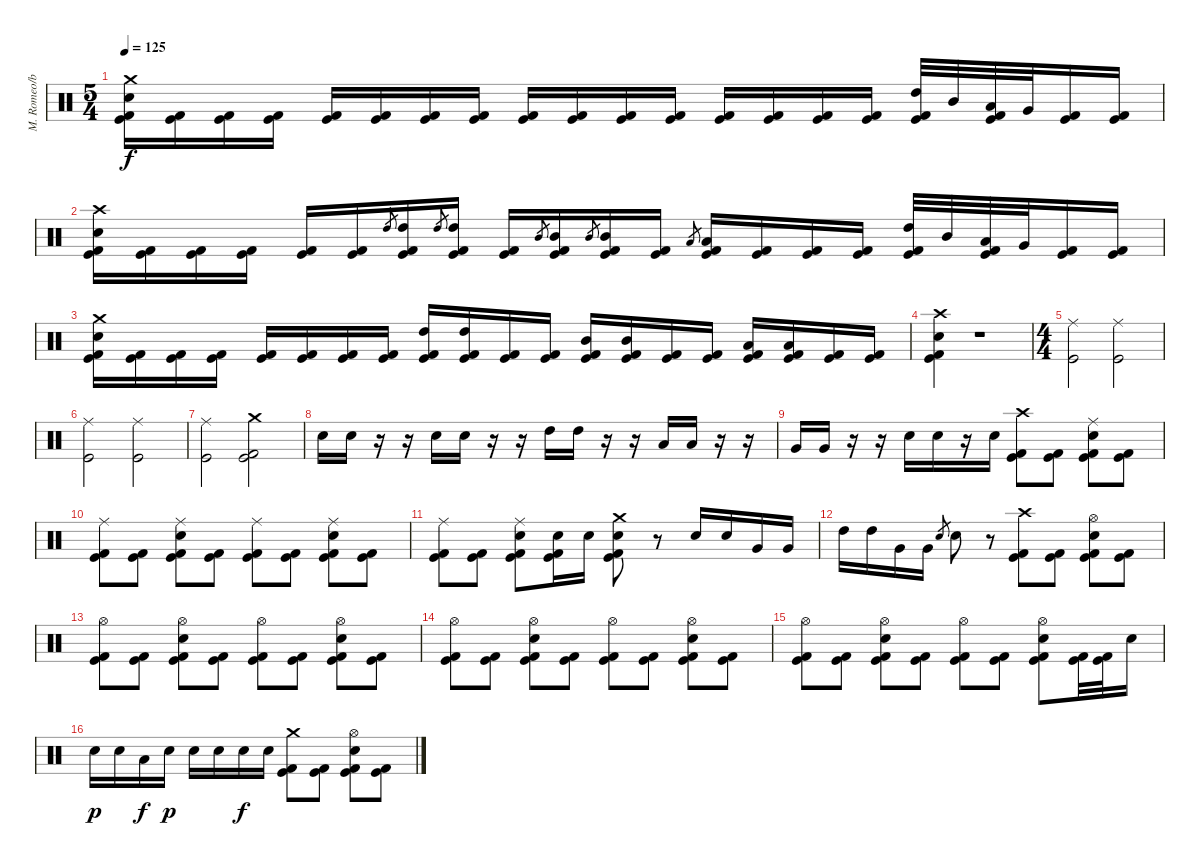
\track ("M. Romeo/bateria" "M. Romeo/b") {instrument percussion}
\staff {score}
\articulation defaults
\ts (5 4)
\tempo 125
\clef neutral
\ks c
("Crash medium (hit)" "Electric Snare (hit)" "Kick (hit)" "Kick (hit) 2").16{dy f} ("Kick (hit)" "Kick (hit) 2").16 ("Kick (hit)" "Kick (hit) 2").16 ("Kick (hit)" "Kick (hit) 2").16 ("Kick (hit)" "Kick (hit) 2").16 ("Kick (hit)" "Kick (hit) 2").16 ("Kick (hit)" "Kick (hit) 2").16 ("Kick (hit)" "Kick (hit) 2").16 ("Kick (hit)" "Kick (hit) 2").16 ("Kick (hit)" "Kick (hit) 2").16 ("Kick (hit)" "Kick (hit) 2").16 ("Kick (hit)" "Kick (hit) 2").16 ("Kick (hit)" "Kick (hit) 2").16 ("Kick (hit)" "Kick (hit) 2").16 ("Kick (hit)" "Kick (hit) 2").16 ("Kick (hit)" "Kick (hit) 2").16 ("High Tom (hit)" "Kick (hit)" "Kick (hit) 2").32 "Mid Tom (hit)".32 ("Low Tom (hit)" "Kick (hit)" "Kick (hit) 2").32 "Very Low Tom (hit)".32 ("Kick (hit)" "Kick (hit) 2").16 ("Kick (hit)" "Kick (hit) 2").16 |
("Crash high (hit)" "Electric Snare (hit)" "Kick (hit)" "Kick (hit) 2").16 ("Kick (hit)" "Kick (hit) 2").16 ("Kick (hit)" "Kick (hit) 2").16 ("Kick (hit)" "Kick (hit) 2").16 ("Kick (hit)" "Kick (hit) 2").16 ("Kick (hit)" "Kick (hit) 2").16 "High Tom (hit)".8{gr} ("High Tom (hit)" "Kick (hit)" "Kick (hit) 2").16 "High Tom (hit)".8{gr} ("High Tom (hit)" "Kick (hit)" "Kick (hit) 2").16 ("Kick (hit)" "Kick (hit) 2").16 "Mid Tom (hit)".8{gr} ("Mid Tom (hit)" "Kick (hit)" "Kick (hit) 2").16 "Mid Tom (hit)".8{gr} ("Mid Tom (hit)" "Kick (hit)" "Kick (hit) 2").16 ("Kick (hit)" "Kick (hit) 2").16 "Low Tom (hit)".8{gr} ("Low Tom (hit)" "Kick (hit)" "Kick (hit) 2").16 ("Kick (hit)" "Kick (hit) 2").16 ("Kick (hit)" "Kick (hit) 2").16 ("Kick (hit)" "Kick (hit) 2").16 ("High Tom (hit)" "Kick (hit)" "Kick (hit) 2").32 "Mid Tom (hit)".32 ("Low Tom (hit)" "Kick (hit)" "Kick (hit) 2").32 "Very Low Tom (hit)".32 ("Kick (hit)" "Kick (hit) 2").16 ("Kick (hit)" "Kick (hit) 2").16 |
("Crash medium (hit)" "Electric Snare (hit)" "Kick (hit)" "Kick (hit) 2").16 ("Kick (hit)" "Kick (hit) 2").16 ("Kick (hit)" "Kick (hit) 2").16 ("Kick (hit)" "Kick (hit) 2").16 ("Kick (hit)" "Kick (hit) 2").16 ("Kick (hit)" "Kick (hit) 2").16 ("Kick (hit)" "Kick (hit) 2").16 ("Kick (hit)" "Kick (hit) 2").16 ("High Tom (hit)" "Kick (hit)" "Kick (hit) 2").16 ("High Tom (hit)" "Kick (hit)" "Kick (hit) 2").16 ("Kick (hit)" "Kick (hit) 2").16 ("Kick (hit)" "Kick (hit) 2").16 ("Mid Tom (hit)" "Kick (hit)" "Kick (hit) 2").16 ("Mid Tom (hit)" "Kick (hit)" "Kick (hit) 2").16 ("Kick (hit)" "Kick (hit) 2").16 ("Kick (hit)" "Kick (hit) 2").16 ("Low Tom (hit)" "Kick (hit)" "Kick (hit) 2").16 ("Low Tom (hit)" "Kick (hit)" "Kick (hit) 2").16 ("Kick (hit)" "Kick (hit) 2").16 ("Kick (hit)" "Kick (hit) 2").16 |
("Crash high (hit)" "Electric Snare (hit)" "Kick (hit)" "Kick (hit) 2").4 r.1 |
\ts (4 4)
("Ride (middle)" "Kick (hit)").2 ("Ride (middle)" "Kick (hit)").2 |
("Ride (middle)" "Kick (hit)").2 ("Ride (middle)" "Kick (hit)").2 |
("Ride (middle)" "Kick (hit)").2 ("Crash medium (hit)" "Kick (hit)" "Kick (hit) 2").2 |
"Electric Snare (hit)".16 "Electric Snare (hit)".16 r.16 r.16 "Electric Snare (hit)".16 "Electric Snare (hit)".16 r.16 r.16 "High Tom (hit)".16 "High Tom (hit)".16 r.16 r.16 "Low Tom (hit)".16 "Low Tom (hit)".16 r.16 r.16 |
"Very Low Tom (hit)".16 "Very Low Tom (hit)".16 r.16 r.16 "Electric Snare (hit)".16 "Electric Snare (hit)".16 r.16 "Electric Snare (hit)".16 ("Crash high (hit)" "Kick (hit)" "Kick (hit) 2").8 ("Kick (hit)" "Kick (hit) 2").8 ("Ride (middle)" "Electric Snare (hit)" "Kick (hit)" "Kick (hit) 2").8 ("Kick (hit)" "Kick (hit) 2").8 |
("Ride (middle)" "Kick (hit)" "Kick (hit) 2").8 ("Kick (hit)" "Kick (hit) 2").8 ("Ride (middle)" "Electric Snare (hit)" "Kick (hit)" "Kick (hit) 2").8 ("Kick (hit)" "Kick (hit) 2").8 ("Ride (middle)" "Kick (hit)" "Kick (hit) 2").8 ("Kick (hit)" "Kick (hit) 2").8 ("Ride (middle)" "Electric Snare (hit)" "Kick (hit)" "Kick (hit) 2").8 ("Kick (hit)" "Kick (hit) 2").8 |
("Ride (middle)" "Kick (hit)" "Kick (hit) 2").8 ("Kick (hit)" "Kick (hit) 2").8 ("Ride (middle)" "Electric Snare (hit)" "Kick (hit)" "Kick (hit) 2").8 ("Electric Snare (hit)" "Kick (hit)" "Kick (hit) 2").16 "Electric Snare (hit)".16 ("Crash medium (hit)" "Electric Snare (hit)" "Kick (hit)" "Kick (hit) 2").8 r.8 "Electric Snare (hit)".16 "Electric Snare (hit)".16 "Very Low Tom (hit)".16 "Very Low Tom (hit)".16 |
"High Tom (hit)".16 "High Tom (hit)".16 "Very Low Tom (hit)".16 "Very Low Tom (hit)".16 "Electric Snare (hit)".8{gr} "Electric Snare (hit)".8 r.8 ("Crash high (hit)" "Kick (hit)" "Kick (hit) 2").8 ("Kick (hit)" "Kick (hit) 2").8 ("Hi-Hat (open)" "Electric Snare (hit)" "Kick (hit)" "Kick (hit) 2").8 ("Kick (hit)" "Kick (hit) 2").8 |
("Hi-Hat (open)" "Kick (hit)" "Kick (hit) 2").8 ("Kick (hit)" "Kick (hit) 2").8 ("Hi-Hat (open)" "Electric Snare (hit)" "Kick (hit)" "Kick (hit) 2").8 ("Kick (hit)" "Kick (hit) 2").8 ("Hi-Hat (open)" "Kick (hit)" "Kick (hit) 2").8 ("Kick (hit)" "Kick (hit) 2").8 ("Hi-Hat (open)" "Electric Snare (hit)" "Kick (hit)" "Kick (hit) 2").8 ("Kick (hit)" "Kick (hit) 2").8 |
("Hi-Hat (open)" "Kick (hit)" "Kick (hit) 2").8 ("Kick (hit)" "Kick (hit) 2").8 ("Hi-Hat (open)" "Electric Snare (hit)" "Kick (hit)" "Kick (hit) 2").8 ("Kick (hit)" "Kick (hit) 2").8 ("Hi-Hat (open)" "Kick (hit)" "Kick (hit) 2").8 ("Kick (hit)" "Kick (hit) 2").8 ("Hi-Hat (open)" "Electric Snare (hit)" "Kick (hit)" "Kick (hit) 2").8 ("Kick (hit)" "Kick (hit) 2").8 |
("Hi-Hat (open)" "Kick (hit)" "Kick (hit) 2").8 ("Kick (hit)" "Kick (hit) 2").8 ("Hi-Hat (open)" "Electric Snare (hit)" "Kick (hit)" "Kick (hit) 2").8 ("Kick (hit)" "Kick (hit) 2").8 ("Hi-Hat (open)" "Kick (hit)" "Kick (hit) 2").8 ("Kick (hit)" "Kick (hit) 2").8 ("Hi-Hat (open)" "Electric Snare (hit)" "Kick (hit)" "Kick (hit) 2").8 ("Kick (hit)" "Kick (hit) 2").32 ("Kick (hit)" "Kick (hit) 2").32 "Electric Snare (hit)".16 |
"Electric Snare (hit)".16{dy p} "Electric Snare (hit)".16 "Low Tom (hit)".16{dy f} "Electric Snare (hit)".16{dy p} "Electric Snare (hit)".16 "Electric Snare (hit)".16 "Electric Snare (hit)".16{dy f} "Electric Snare (hit)".16 ("Crash medium (hit)" "Kick (hit)" "Kick (hit) 2").8 ("Kick (hit)" "Kick (hit) 2").8 ("Hi-Hat (open)" "Electric Snare (hit)" "Kick (hit)" "Kick (hit) 2").8 ("Kick (hit)" "Kick (hit) 2").8
